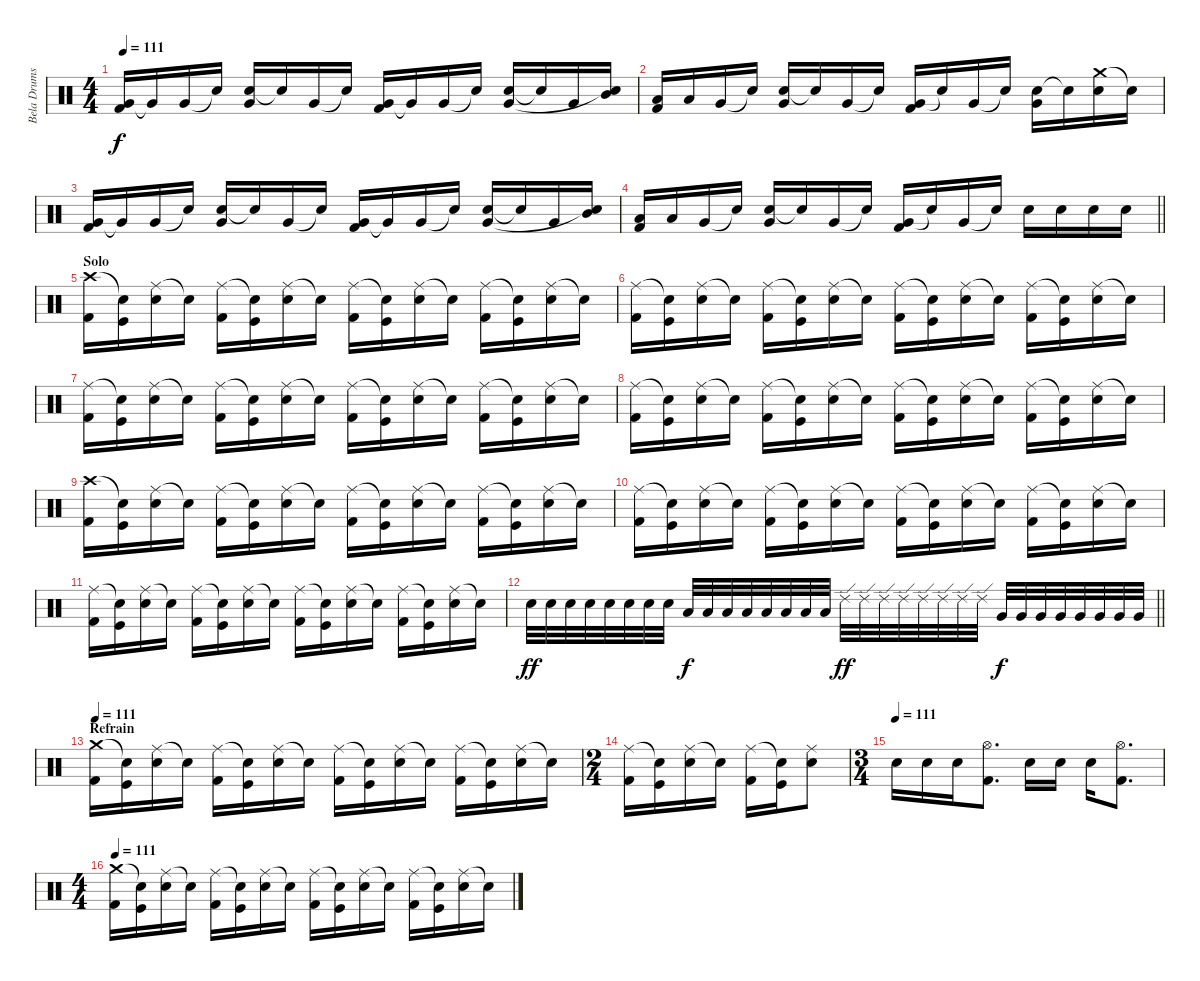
\track ("Bela Drums" "Bela Drums") {instrument percussion}
\staff {score}
\articulation defaults
\ts (4 4)
\tempo 111
\clef neutral
\ks c
("Very Low Tom (hit)" "Kick (hit) 2").16{dy f} "Very Low Tom (hit)"{t}.16 "Very Low Tom (hit)".16 "Snare (hit)"{t}.16 ("Snare (hit) 2" "Very Low Tom (hit)").16 "Snare (hit)"{t}.16 "Very Low Tom (hit)".16 "Snare (hit)"{t}.16 ("Very Low Tom (hit)" "Kick (hit) 2").16 "Very Low Tom (hit)"{t}.16 "Very Low Tom (hit)".16 "Snare (hit)"{t}.16 ("Snare (hit) 2" "Very Low Tom (hit)").16 "Snare (hit)"{t}.16 "Very Low Tom (hit)".16 ("Mid Tom (hit)" "Snare (hit)"{t}).16 |
("Low Tom (hit)" "Kick (hit) 2").16 "Low Tom (hit)".16 "Very Low Tom (hit)".16 "Snare (hit)"{t}.16 ("Snare (hit) 2" "Very Low Tom (hit)").16 "Snare (hit)"{t}.16 "Very Low Tom (hit)".16 "Snare (hit)"{t}.16 ("Very Low Tom (hit)" "Kick (hit) 2").16 "Snare (hit)"{t}.16 "Very Low Tom (hit)".16 "Snare (hit)"{t}.16 ("Snare (hit) 2" "Very Low Tom (hit)").16 "Snare (hit)"{t}.16 ("Crash medium (hit)" "Snare (hit) 2").16 "Snare (hit)"{t}.16 |
("Very Low Tom (hit)" "Kick (hit) 2").16 "Very Low Tom (hit)"{t}.16 "Very Low Tom (hit)".16 "Snare (hit)"{t}.16 ("Snare (hit) 2" "Very Low Tom (hit)").16 "Snare (hit)"{t}.16 "Very Low Tom (hit)".16 "Snare (hit)"{t}.16 ("Very Low Tom (hit)" "Kick (hit) 2").16 "Very Low Tom (hit)"{t}.16 "Very Low Tom (hit)".16 "Snare (hit)"{t}.16 ("Snare (hit) 2" "Very Low Tom (hit)").16 "Snare (hit)"{t}.16 "Very Low Tom (hit)".16 ("Mid Tom (hit)" "Snare (hit)"{t}).16 |
\barLineRight lightlight
("Low Tom (hit)" "Kick (hit) 2").16 "Low Tom (hit)".16 "Very Low Tom (hit)".16 "Snare (hit)"{t}.16 ("Snare (hit) 2" "Very Low Tom (hit)").16 "Snare (hit)"{t}.16 "Very Low Tom (hit)".16 "Snare (hit)"{t}.16 ("Very Low Tom (hit)" "Kick (hit) 2").16 "Snare (hit)"{t}.16 "Very Low Tom (hit)".16 "Snare (hit)"{t}.16 "Snare (hit) 2".16 "Snare (hit) 2".16 "Snare (hit) 2".16 "Snare (hit) 2".16 |
\section ("" "Solo")
("Crash high (hit)" "Kick (hit) 2").16 ("Snare (hit)"{t} "Kick (hit)").16 ("Ride (middle)" "Snare (hit) 2").16 "Snare (hit)"{t}.16 ("Ride (middle)" "Kick (hit) 2").16 ("Snare (hit)"{t} "Kick (hit)").16 ("Ride (middle)" "Snare (hit) 2").16 "Snare (hit)"{t}.16 ("Ride (middle)" "Kick (hit) 2").16 ("Snare (hit)"{t} "Kick (hit)").16 ("Ride (middle)" "Snare (hit) 2").16 "Snare (hit)"{t}.16 ("Ride (middle)" "Kick (hit) 2").16 ("Snare (hit)"{t} "Kick (hit)").16 ("Ride (middle)" "Snare (hit) 2").16 "Snare (hit)"{t}.16 |
("Ride (middle)" "Kick (hit) 2").16 ("Snare (hit)"{t} "Kick (hit)").16 ("Ride (middle)" "Snare (hit) 2").16 "Snare (hit)"{t}.16 ("Ride (middle)" "Kick (hit) 2").16 ("Snare (hit)"{t} "Kick (hit)").16 ("Ride (middle)" "Snare (hit) 2").16 "Snare (hit)"{t}.16 ("Ride (middle)" "Kick (hit) 2").16 ("Snare (hit)"{t} "Kick (hit)").16 ("Ride (middle)" "Snare (hit) 2").16 "Snare (hit)"{t}.16 ("Ride (middle)" "Kick (hit) 2").16 ("Snare (hit)"{t} "Kick (hit)").16 ("Ride (middle)" "Snare (hit) 2").16 "Snare (hit)"{t}.16 |
("Ride (middle)" "Kick (hit) 2").16 ("Snare (hit)"{t} "Kick (hit)").16 ("Ride (middle)" "Snare (hit) 2").16 "Snare (hit)"{t}.16 ("Ride (middle)" "Kick (hit) 2").16 ("Snare (hit)"{t} "Kick (hit)").16 ("Ride (middle)" "Snare (hit) 2").16 "Snare (hit)"{t}.16 ("Ride (middle)" "Kick (hit) 2").16 ("Snare (hit)"{t} "Kick (hit)").16 ("Ride (middle)" "Snare (hit) 2").16 "Snare (hit)"{t}.16 ("Ride (middle)" "Kick (hit) 2").16 ("Snare (hit)"{t} "Kick (hit)").16 ("Ride (middle)" "Snare (hit) 2").16 "Snare (hit)"{t}.16 |
("Ride (middle)" "Kick (hit) 2").16 ("Snare (hit)"{t} "Kick (hit)").16 ("Ride (middle)" "Snare (hit) 2").16 "Snare (hit)"{t}.16 ("Ride (middle)" "Kick (hit) 2").16 ("Snare (hit)"{t} "Kick (hit)").16 ("Ride (middle)" "Snare (hit) 2").16 "Snare (hit)"{t}.16 ("Ride (middle)" "Kick (hit) 2").16 ("Snare (hit)"{t} "Kick (hit)").16 ("Ride (middle)" "Snare (hit) 2").16 "Snare (hit)"{t}.16 ("Ride (middle)" "Kick (hit) 2").16 ("Snare (hit)"{t} "Kick (hit)").16 ("Ride (middle)" "Snare (hit) 2").16 "Snare (hit)"{t}.16 |
("Crash high (hit)" "Kick (hit) 2").16 ("Snare (hit)"{t} "Kick (hit)").16 ("Ride (middle)" "Snare (hit) 2").16 "Snare (hit)"{t}.16 ("Ride (middle)" "Kick (hit) 2").16 ("Snare (hit)"{t} "Kick (hit)").16 ("Ride (middle)" "Snare (hit) 2").16 "Snare (hit)"{t}.16 ("Ride (middle)" "Kick (hit) 2").16 ("Snare (hit)"{t} "Kick (hit)").16 ("Ride (middle)" "Snare (hit) 2").16 "Snare (hit)"{t}.16 ("Ride (middle)" "Kick (hit) 2").16 ("Snare (hit)"{t} "Kick (hit)").16 ("Ride (middle)" "Snare (hit) 2").16 "Snare (hit)"{t}.16 |
("Ride (middle)" "Kick (hit) 2").16 ("Snare (hit)"{t} "Kick (hit)").16 ("Ride (middle)" "Snare (hit) 2").16 "Snare (hit)"{t}.16 ("Ride (middle)" "Kick (hit) 2").16 ("Snare (hit)"{t} "Kick (hit)").16 ("Ride (middle)" "Snare (hit) 2").16 "Snare (hit)"{t}.16 ("Ride (middle)" "Kick (hit) 2").16 ("Snare (hit)"{t} "Kick (hit)").16 ("Ride (middle)" "Snare (hit) 2").16 "Snare (hit)"{t}.16 ("Ride (middle)" "Kick (hit) 2").16 ("Snare (hit)"{t} "Kick (hit)").16 ("Ride (middle)" "Snare (hit) 2").16 "Snare (hit)"{t}.16 |
("Ride (middle)" "Kick (hit) 2").16 ("Snare (hit)"{t} "Kick (hit)").16 ("Ride (middle)" "Snare (hit) 2").16 "Snare (hit)"{t}.16 ("Ride (middle)" "Kick (hit) 2").16 ("Snare (hit)"{t} "Kick (hit)").16 ("Ride (middle)" "Snare (hit) 2").16 "Snare (hit)"{t}.16 ("Ride (middle)" "Kick (hit) 2").16 ("Snare (hit)"{t} "Kick (hit)").16 ("Ride (middle)" "Snare (hit) 2").16 "Snare (hit)"{t}.16 ("Ride (middle)" "Kick (hit) 2").16 ("Snare (hit)"{t} "Kick (hit)").16 ("Ride (middle)" "Snare (hit) 2").16 "Snare (hit)"{t}.16 |
\barLineRight lightlight "Snare (hit) 2".32{dy ff} "Snare (hit) 2".32 "Snare (hit) 2".32 "Snare (hit) 2".32 "Snare (hit) 2".32 "Snare (hit) 2".32 "Snare (hit) 2".32 "Snare (hit) 2".32 "Low Tom (hit)".32{dy f} "Low Tom (hit)".32 "Low Tom (hit)".32 "Low Tom (hit)".32 "Low Tom (hit)".32 "Low Tom (hit)".32 "Low Tom (hit)".32 "Low Tom (hit)".32 "Ride (edge) 2".32{dy ff} "Ride (edge) 2".32 "Ride (edge) 2".32 "Ride (edge) 2".32 "Ride (edge) 2".32 "Ride (edge) 2".32 "Ride (edge) 2".32 "Ride (edge) 2".32 "Very Low Tom (hit)".32{dy f} "Very Low Tom (hit)".32 "Very Low Tom (hit)".32 "Very Low Tom (hit)".32 "Very Low Tom (hit)".32 "Very Low Tom (hit)".32 "Very Low Tom (hit)".32 "Very Low Tom (hit)".32
|
\section ("" "Refrain")
\tempo 111
("Crash medium (hit)" "Kick (hit) 2").16 ("Snare (hit)"{t} "Kick (hit)").16 ("Ride (middle)" "Snare (hit) 2").16 "Snare (hit)"{t}.16 ("Ride (middle)" "Kick (hit) 2").16 ("Snare (hit)"{t} "Kick (hit)").16 ("Ride (middle)" "Snare (hit) 2").16 "Snare (hit)"{t}.16 ("Ride (middle)" "Kick (hit) 2").16 ("Snare (hit)"{t} "Kick (hit)").16 ("Ride (middle)" "Snare (hit) 2").16 "Snare (hit)"{t}.16 ("Ride (middle)" "Kick (hit) 2").16 ("Snare (hit)"{t} "Kick (hit)").16 ("Ride (middle)" "Snare (hit) 2").16 "Snare (hit)"{t}.16 |
\ts (2 4)
("Ride (middle)" "Kick (hit) 2").16 ("Snare (hit)"{t} "Kick (hit)").16 ("Ride (middle)" "Snare (hit) 2").16 "Snare (hit)"{t}.16 ("Ride (middle)" "Kick (hit) 2").16 ("Snare (hit)"{t} "Kick (hit)").16 ("Ride (middle)" "Snare (hit) 2").8 |
\ts (3 4)
\tempo (111)
"Snare (hit) 2".16 "Snare (hit) 2".16 "Snare (hit) 2".16 ("Hi-Hat (open)" "Kick (hit) 2").8{d} "Snare (hit) 2".16 "Snare (hit) 2".16 "Snare (hit) 2".16 ("Hi-Hat (open)" "Kick (hit) 2").8{d} |
\ts (4 4)
\tempo 111
("Crash medium (hit)" "Kick (hit) 2").16 ("Snare (hit)"{t} "Kick (hit)").16 ("Ride (middle)" "Snare (hit) 2").16 "Snare (hit)"{t}.16 ("Ride (middle)" "Kick (hit) 2").16 ("Snare (hit)"{t} "Kick (hit)").16 ("Ride (middle)" "Snare (hit) 2").16 "Snare (hit)"{t}.16 ("Ride (middle)" "Kick (hit) 2").16 ("Snare (hit)"{t} "Kick (hit)").16 ("Ride (middle)" "Snare (hit) 2").16 "Snare (hit)"{t}.16 ("Ride (middle)" "Kick (hit) 2").16 ("Snare (hit)"{t} "Kick (hit)").16 ("Ride (middle)" "Snare (hit) 2").16 "Snare (hit)"{t}.16
